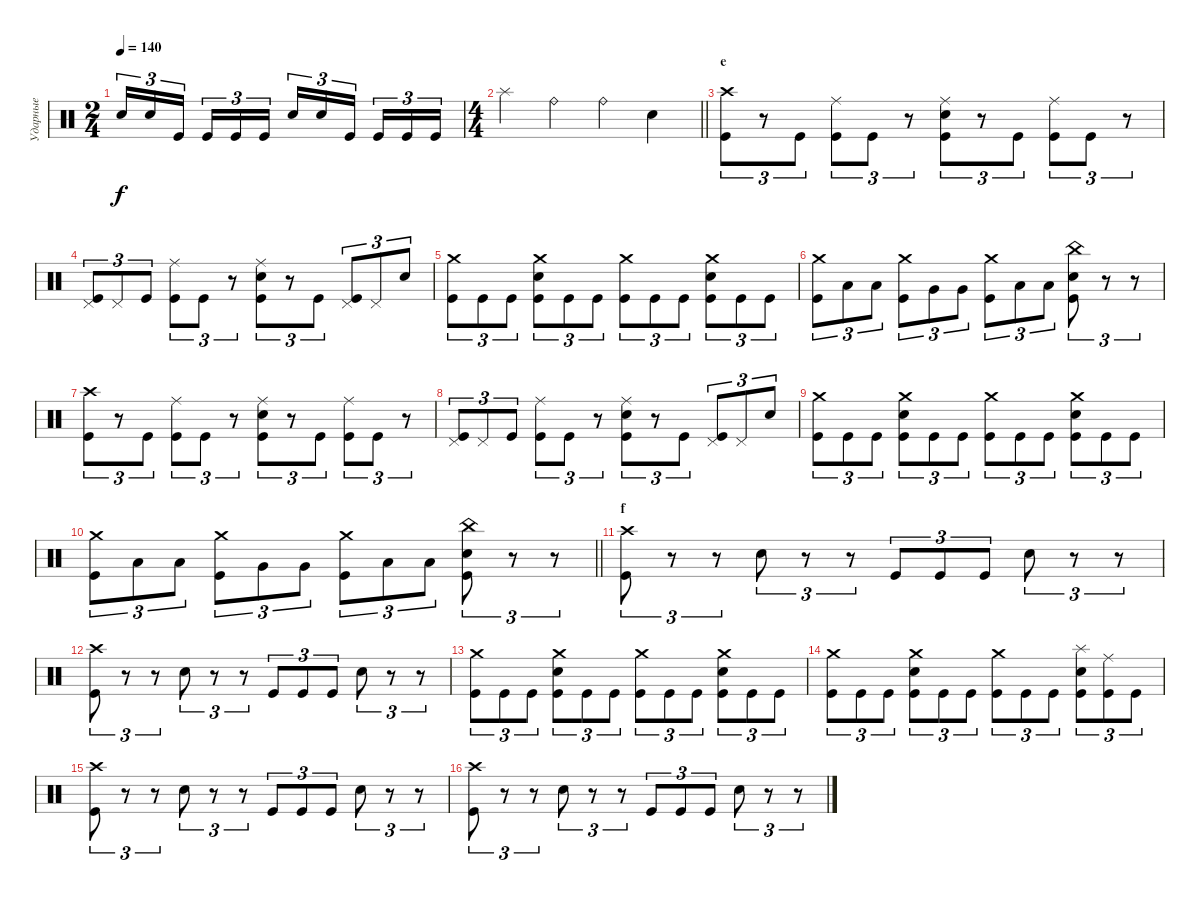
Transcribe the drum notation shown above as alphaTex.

\track ("Ударные" "Ударные") {instrument percussion}
\staff {score}
\articulation defaults
\ts (2 4)
\section ("" "")
\tempo 140
\clef neutral
\ks c "Electric Snare (hit)".16{tu (3 2) dy f} "Electric Snare (hit)".16{tu (3 2)} "Kick (hit)".16{tu (3 2) beam splitsecondary} "Kick (hit)".16{tu (3 2)} "Kick (hit)".16{tu (3 2)} "Kick (hit)".16{tu (3 2)} "Electric Snare (hit)".16{tu (3 2)} "Electric Snare (hit)".16{tu (3 2)} "Kick (hit)".16{tu (3 2) beam splitsecondary} "Kick (hit)".16{tu (3 2)} "Kick (hit)".16{tu (3 2)} "Kick (hit)".16{tu (3 2)}
|
\ts (4 4)
\barLineRight lightlight "Splash (hit)".4 "Ride (bell)".4 "Ride (bell)".4 "Electric Snare (hit)".4
|
\section ("" "e")
("Crash high (hit)" "Kick (hit)").8{tu (3 2)} r.8{tu (3 2)} "Kick (hit)".8{tu (3 2)} ("Ride (middle)" "Kick (hit)").8{tu (3 2)} "Kick (hit)".8{tu (3 2)} r.8{tu (3 2)} ("Ride (middle)" "Electric Snare (hit)" "Kick (hit)").8{tu (3 2)} r.8{tu (3 2)} "Kick (hit)".8{tu (3 2)} ("Ride (middle)" "Kick (hit)").8{tu (3 2)} "Kick (hit)".8{tu (3 2)} r.8{tu (3 2)} |
("Pedal Hi-Hat (hit)" "Kick (hit)").8{tu (3 2)} "Pedal Hi-Hat (hit)".8{tu (3 2)} "Kick (hit)".8{tu (3 2)} ("Ride (middle)" "Kick (hit)").8{tu (3 2)} "Kick (hit)".8{tu (3 2)} r.8{tu (3 2)} ("Ride (middle)" "Electric Snare (hit)" "Kick (hit)").8{tu (3 2)} r.8{tu (3 2)} "Kick (hit)".8{tu (3 2)} ("Pedal Hi-Hat (hit)" "Kick (hit)").8{tu (3 2)} "Pedal Hi-Hat (hit)".8{tu (3 2)} "Electric Snare (hit)".8{tu (3 2)} |
("Crash medium (hit)" "Kick (hit)").8{tu (3 2)} "Kick (hit)".8{tu (3 2)} "Kick (hit)".8{tu (3 2)} ("Crash medium (hit)" "Electric Snare (hit)" "Kick (hit)").8{tu (3 2)} "Kick (hit)".8{tu (3 2)} "Kick (hit)".8{tu (3 2)} ("Crash medium (hit)" "Kick (hit)").8{tu (3 2)} "Kick (hit)".8{tu (3 2)} "Kick (hit)".8{tu (3 2)} ("Crash medium (hit)" "Electric Snare (hit)" "Kick (hit)").8{tu (3 2)} "Kick (hit)".8{tu (3 2)} "Kick (hit)".8{tu (3 2)} |
("Crash medium (hit)" "Kick (hit)").8{tu (3 2)} "Low Tom (hit)".8{tu (3 2)} "Low Tom (hit)".8{tu (3 2)} ("Crash medium (hit)" "Kick (hit)").8{tu (3 2)} "Very Low Tom (hit)".8{tu (3 2)} "Very Low Tom (hit)".8{tu (3 2)} ("Crash medium (hit)" "Kick (hit)").8{tu (3 2)} "Low Tom (hit)".8{tu (3 2)} "Low Tom (hit)".8{tu (3 2)} ("China (hit)" "Electric Snare (hit)" "Kick (hit)").8{tu (3 2)} r.8{tu (3 2)} r.8{tu (3 2)} |
("Crash high (hit)" "Kick (hit)").8{tu (3 2)} r.8{tu (3 2)} "Kick (hit)".8{tu (3 2)} ("Ride (middle)" "Kick (hit)").8{tu (3 2)} "Kick (hit)".8{tu (3 2)} r.8{tu (3 2)} ("Ride (middle)" "Electric Snare (hit)" "Kick (hit)").8{tu (3 2)} r.8{tu (3 2)} "Kick (hit)".8{tu (3 2)} ("Ride (middle)" "Kick (hit)").8{tu (3 2)} "Kick (hit)".8{tu (3 2)} r.8{tu (3 2)} |
("Pedal Hi-Hat (hit)" "Kick (hit)").8{tu (3 2)} "Pedal Hi-Hat (hit)".8{tu (3 2)} "Kick (hit)".8{tu (3 2)} ("Ride (middle)" "Kick (hit)").8{tu (3 2)} "Kick (hit)".8{tu (3 2)} r.8{tu (3 2)} ("Ride (middle)" "Electric Snare (hit)" "Kick (hit)").8{tu (3 2)} r.8{tu (3 2)} "Kick (hit)".8{tu (3 2)} ("Pedal Hi-Hat (hit)" "Kick (hit)").8{tu (3 2)} "Pedal Hi-Hat (hit)".8{tu (3 2)} "Electric Snare (hit)".8{tu (3 2)} |
("Crash medium (hit)" "Kick (hit)").8{tu (3 2)} "Kick (hit)".8{tu (3 2)} "Kick (hit)".8{tu (3 2)} ("Crash medium (hit)" "Electric Snare (hit)" "Kick (hit)").8{tu (3 2)} "Kick (hit)".8{tu (3 2)} "Kick (hit)".8{tu (3 2)} ("Crash medium (hit)" "Kick (hit)").8{tu (3 2)} "Kick (hit)".8{tu (3 2)} "Kick (hit)".8{tu (3 2)} ("Crash medium (hit)" "Electric Snare (hit)" "Kick (hit)").8{tu (3 2)} "Kick (hit)".8{tu (3 2)} "Kick (hit)".8{tu (3 2)} |
\barLineRight lightlight
("Crash medium (hit)" "Kick (hit)").8{tu (3 2)} "Low Tom (hit)".8{tu (3 2)} "Low Tom (hit)".8{tu (3 2)} ("Crash medium (hit)" "Kick (hit)").8{tu (3 2)} "Very Low Tom (hit)".8{tu (3 2)} "Very Low Tom (hit)".8{tu (3 2)} ("Crash medium (hit)" "Kick (hit)").8{tu (3 2)} "Low Tom (hit)".8{tu (3 2)} "Low Tom (hit)".8{tu (3 2)} ("China (hit)" "Electric Snare (hit)" "Kick (hit)").8{tu (3 2)} r.8{tu (3 2)} r.8{tu (3 2)} |
\section ("" "f")
("Crash high (hit)" "Kick (hit)").8{tu (3 2)} r.8{tu (3 2)} r.8{tu (3 2)} "Electric Snare (hit)".8{tu (3 2)} r.8{tu (3 2)} r.8{tu (3 2)} "Kick (hit)".8{tu (3 2)} "Kick (hit)".8{tu (3 2)} "Kick (hit)".8{tu (3 2)} "Electric Snare (hit)".8{tu (3 2)} r.8{tu (3 2)} r.8{tu (3 2)} |
("Crash high (hit)" "Kick (hit)").8{tu (3 2)} r.8{tu (3 2)} r.8{tu (3 2)} "Electric Snare (hit)".8{tu (3 2)} r.8{tu (3 2)} r.8{tu (3 2)} "Kick (hit)".8{tu (3 2)} "Kick (hit)".8{tu (3 2)} "Kick (hit)".8{tu (3 2)} "Electric Snare (hit)".8{tu (3 2)} r.8{tu (3 2)} r.8{tu (3 2)} |
("Crash medium (hit)" "Kick (hit)").8{tu (3 2)} "Kick (hit)".8{tu (3 2)} "Kick (hit)".8{tu (3 2)} ("Crash medium (hit)" "Electric Snare (hit)" "Kick (hit)").8{tu (3 2)} "Kick (hit)".8{tu (3 2)} "Kick (hit)".8{tu (3 2)} ("Crash medium (hit)" "Kick (hit)").8{tu (3 2)} "Kick (hit)".8{tu (3 2)} "Kick (hit)".8{tu (3 2)} ("Crash medium (hit)" "Electric Snare (hit)" "Kick (hit)").8{tu (3 2)} "Kick (hit)".8{tu (3 2)} "Kick (hit)".8{tu (3 2)} |
("Crash medium (hit)" "Kick (hit)").8{tu (3 2)} "Kick (hit)".8{tu (3 2)} "Kick (hit)".8{tu (3 2)} ("Crash medium (hit)" "Electric Snare (hit)" "Kick (hit)").8{tu (3 2)} "Kick (hit)".8{tu (3 2)} "Kick (hit)".8{tu (3 2)} ("Crash medium (hit)" "Kick (hit)").8{tu (3 2)} "Kick (hit)".8{tu (3 2)} "Kick (hit)".8{tu (3 2)} ("Splash (hit)" "Electric Snare (hit)" "Kick (hit)").8{tu (3 2)} ("Ride (middle)" "Kick (hit)").8{tu (3 2)} "Kick (hit)".8{tu (3 2)} |
("Crash high (hit)" "Kick (hit)").8{tu (3 2)} r.8{tu (3 2)} r.8{tu (3 2)} "Electric Snare (hit)".8{tu (3 2)} r.8{tu (3 2)} r.8{tu (3 2)} "Kick (hit)".8{tu (3 2)} "Kick (hit)".8{tu (3 2)} "Kick (hit)".8{tu (3 2)} "Electric Snare (hit)".8{tu (3 2)} r.8{tu (3 2)} r.8{tu (3 2)} |
("Crash high (hit)" "Kick (hit)").8{tu (3 2)} r.8{tu (3 2)} r.8{tu (3 2)} "Electric Snare (hit)".8{tu (3 2)} r.8{tu (3 2)} r.8{tu (3 2)} "Kick (hit)".8{tu (3 2)} "Kick (hit)".8{tu (3 2)} "Kick (hit)".8{tu (3 2)} "Electric Snare (hit)".8{tu (3 2)} r.8{tu (3 2)} r.8{tu (3 2)}
